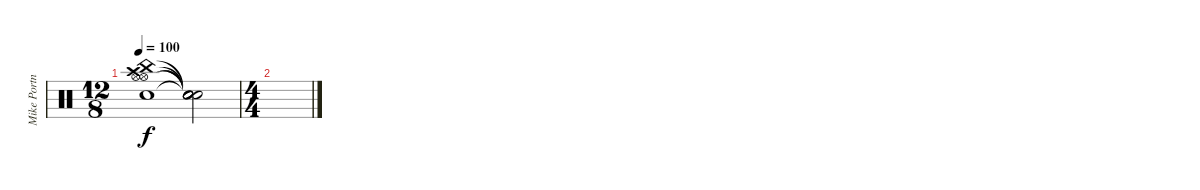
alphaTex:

\track ("Mike Portnoy Drums" "Mike Portn") {instrument percussion}
\staff {score}
\articulation defaults
\ts (12 8)
\tempo 100
\clef neutral
\ks c
("Hi-Hat (open)" "Snare (hit) 2" "China (hit)" "Hi-Hat (open)" "Crash high (hit)").1{dy f} ("Snare (hit)"{t} "Snare (hit)"{t} "Snare (hit)"{t} "Snare (hit)"{t} "Snare (hit)"{t}).2 |
\ts (4 4)
